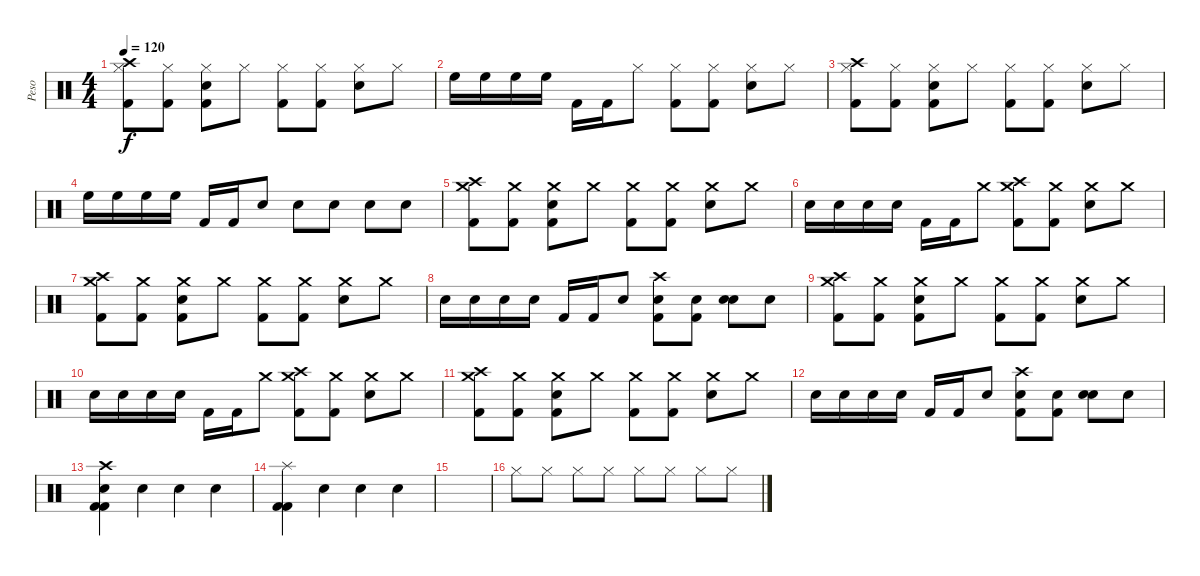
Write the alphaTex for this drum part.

\track ("Peso" "Peso") {instrument percussion}
\staff {score}
\articulation defaults
\ts (4 4)
\tempo 120
\clef neutral
\ks c
("Crash high (hit)" "Hi-Hat (closed)" "Kick (hit) 2").8{dy f} ("Hi-Hat (closed)" "Kick (hit) 2").8 ("Hi-Hat (closed)" "Snare (hit) 2" "Kick (hit) 2").8 "Hi-Hat (closed)".8 ("Hi-Hat (closed)" "Kick (hit) 2").8 ("Hi-Hat (closed)" "Kick (hit) 2").8 ("Hi-Hat (closed)" "Snare (hit) 2").8 "Hi-Hat (closed)".8 |
"High Floor Tom (hit)".16 "High Floor Tom (hit)".16 "High Floor Tom (hit)".16 "High Floor Tom (hit)".16 "Kick (hit) 2".16 "Kick (hit) 2".16 "Hi-Hat (closed)".8 ("Hi-Hat (closed)" "Kick (hit) 2").8 ("Hi-Hat (closed)" "Kick (hit) 2").8 ("Hi-Hat (closed)" "Snare (hit) 2").8 "Hi-Hat (closed)".8 |
("Crash high (hit)" "Hi-Hat (closed)" "Kick (hit) 2").8 ("Hi-Hat (closed)" "Kick (hit) 2").8 ("Hi-Hat (closed)" "Snare (hit) 2" "Kick (hit) 2").8 "Hi-Hat (closed)".8 ("Hi-Hat (closed)" "Kick (hit) 2").8 ("Hi-Hat (closed)" "Kick (hit) 2").8 ("Hi-Hat (closed)" "Snare (hit) 2").8 "Hi-Hat (closed)".8 |
"High Floor Tom (hit)".16 "High Floor Tom (hit)".16 "High Floor Tom (hit)".16 "High Floor Tom (hit)".16 "Kick (hit) 2".16 "Kick (hit) 2".16 "Snare (hit) 2".8 "Snare (hit) 2".8 "Snare (hit) 2".8 "Snare (hit) 2".8 "Snare (hit) 2".8 |
("Crash high (hit)" "Crash medium (hit)" "Kick (hit) 2").8 ("Crash medium (hit)" "Kick (hit) 2").8 ("Crash medium (hit)" "Snare (hit) 2" "Kick (hit) 2").8 "Crash medium (hit)".8 ("Crash medium (hit)" "Kick (hit) 2").8 ("Crash medium (hit)" "Kick (hit) 2").8 ("Crash medium (hit)" "Snare (hit) 2").8 "Crash medium (hit)".8 |
"Snare (hit) 2".16 "Snare (hit) 2".16 "Snare (hit) 2".16 "Snare (hit) 2".16 "Kick (hit) 2".16 "Kick (hit) 2".16 "Crash medium (hit)".8 ("Crash high (hit)" "Crash medium (hit)" "Kick (hit) 2").8 ("Crash medium (hit)" "Kick (hit) 2").8 ("Crash medium (hit)" "Snare (hit) 2").8 "Crash medium (hit)".8 |
("Crash high (hit)" "Crash medium (hit)" "Kick (hit) 2").8 ("Crash medium (hit)" "Kick (hit) 2").8 ("Crash medium (hit)" "Snare (hit) 2" "Kick (hit) 2").8 "Crash medium (hit)".8 ("Crash medium (hit)" "Kick (hit) 2").8 ("Crash medium (hit)" "Kick (hit) 2").8 ("Crash medium (hit)" "Snare (hit) 2").8 "Crash medium (hit)".8 |
"Snare (hit) 2".16 "Snare (hit) 2".16 "Snare (hit) 2".16 "Snare (hit) 2".16 "Kick (hit) 2".16 "Kick (hit) 2".16 "Snare (hit) 2".8 ("Crash high (hit)" "Snare (hit) 2" "Kick (hit) 2").8 ("Snare (hit) 2" "Kick (hit) 2").8 ("Snare (hit) 2" "Snare (hit) 2").8 "Snare (hit) 2".8 |
("Crash high (hit)" "Crash medium (hit)" "Kick (hit) 2").8 ("Crash medium (hit)" "Kick (hit) 2").8 ("Crash medium (hit)" "Snare (hit) 2" "Kick (hit) 2").8 "Crash medium (hit)".8 ("Crash medium (hit)" "Kick (hit) 2").8 ("Crash medium (hit)" "Kick (hit) 2").8 ("Crash medium (hit)" "Snare (hit) 2").8 "Crash medium (hit)".8 |
"Snare (hit) 2".16 "Snare (hit) 2".16 "Snare (hit) 2".16 "Snare (hit) 2".16 "Kick (hit) 2".16 "Kick (hit) 2".16 "Crash medium (hit)".8 ("Crash high (hit)" "Crash medium (hit)" "Kick (hit) 2").8 ("Crash medium (hit)" "Kick (hit) 2").8 ("Crash medium (hit)" "Snare (hit) 2").8 "Crash medium (hit)".8 |
("Crash high (hit)" "Crash medium (hit)" "Kick (hit) 2").8 ("Crash medium (hit)" "Kick (hit) 2").8 ("Crash medium (hit)" "Snare (hit) 2" "Kick (hit) 2").8 "Crash medium (hit)".8 ("Crash medium (hit)" "Kick (hit) 2").8 ("Crash medium (hit)" "Kick (hit) 2").8 ("Crash medium (hit)" "Snare (hit) 2").8 "Crash medium (hit)".8 |
"Snare (hit) 2".16 "Snare (hit) 2".16 "Snare (hit) 2".16 "Snare (hit) 2".16 "Kick (hit) 2".16 "Kick (hit) 2".16 "Snare (hit) 2".8 ("Crash high (hit)" "Snare (hit) 2" "Kick (hit) 2").8 ("Snare (hit) 2" "Kick (hit) 2").8 ("Snare (hit) 2" "Snare (hit) 2").8 "Snare (hit) 2".8 |
("Crash high (hit)" "Snare (hit) 2" "Kick (hit) 2" "Kick (hit) 2").4 "Snare (hit)"{x}.4 "Snare (hit)"{x}.4 "Snare (hit)"{x}.4 |
("Splash (hit)" "Kick (hit) 2" "Kick (hit) 2").4 "Snare (hit)"{x}.4 "Snare (hit)"{x}.4 "Snare (hit)"{x}.4 |
|
"Hi-Hat (closed)"{x}.8 "Hi-Hat (closed)"{x}.8 "Hi-Hat (closed)"{x}.8 "Hi-Hat (closed)".8 "Hi-Hat (closed)"{x}.8 "Hi-Hat (closed)".8 "Hi-Hat (closed)".8 "Hi-Hat (closed)"{x}.8
